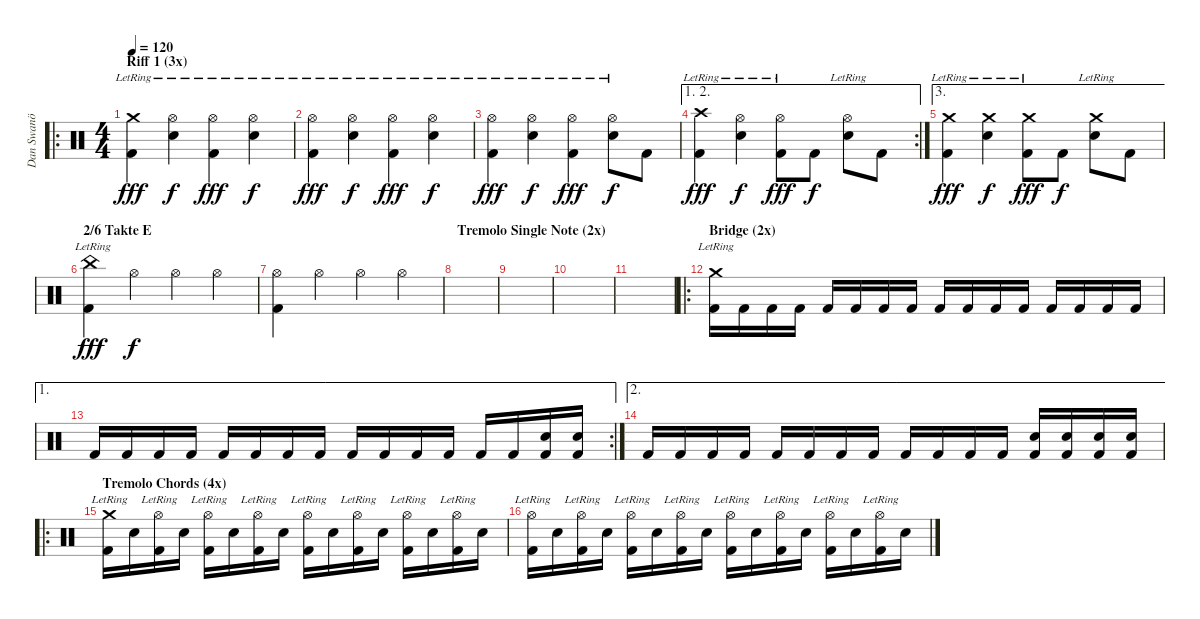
\track ("Dan Swanö" "Dan Swanö") {instrument percussion}
\staff {score}
\articulation defaults
\ro
\ts (4 4)
\section ("" "Riff 1 (3x)")
\tempo 120
\clef neutral
\ks c
("Crash medium (hit)"{lr} "Kick (hit) 2").4{dy fff} ("Hi-Hat (open)"{lr} "Electric Snare (hit)").4{dy f} ("Hi-Hat (open)"{lr} "Kick (hit) 2").4{dy fff} ("Hi-Hat (open)"{lr} "Electric Snare (hit)").4{dy f} |
("Hi-Hat (open)"{lr} "Kick (hit) 2").4{dy fff} ("Hi-Hat (open)"{lr} "Electric Snare (hit)").4{dy f} ("Hi-Hat (open)"{lr} "Kick (hit) 2").4{dy fff} ("Hi-Hat (open)"{lr} "Electric Snare (hit)").4{dy f} |
("Hi-Hat (open)"{lr} "Kick (hit) 2").4{dy fff} ("Hi-Hat (open)"{lr} "Electric Snare (hit)").4{dy f} ("Hi-Hat (open)"{lr} "Kick (hit) 2").4{dy fff} ("Hi-Hat (open)"{lr} "Electric Snare (hit)").8{dy f} "Kick (hit) 2".8 |
\ae (1 2)
\rc 2
("Crash high (hit)"{lr} "Kick (hit) 2").4{dy fff} ("Hi-Hat (open)"{lr} "Electric Snare (hit)").4{dy f} ("Hi-Hat (open)"{lr} "Kick (hit) 2").8{dy fff} "Kick (hit) 2".8{dy f} ("Hi-Hat (open)"{lr} "Electric Snare (hit)").8 "Kick (hit) 2".8 |
\ae 3
("Crash medium (hit)"{lr} "Kick (hit) 2").4{dy fff} ("Crash medium (hit)"{lr} "Electric Snare (hit)").4{dy f} ("Crash medium (hit)"{lr} "Kick (hit) 2").8{dy fff} "Kick (hit) 2".8{dy f} ("Crash medium (hit)"{lr} "Electric Snare (hit)").8 "Kick (hit) 2".8 |
\section ("" "2/6 Takte E")
("China (hit)"{lr} "Kick (hit) 2").4{dy fff} "Hi-Hat (open)".4{dy f} "Hi-Hat (open)".4 "Hi-Hat (open)".4 |
("Hi-Hat (open)" "Kick (hit) 2").4 "Hi-Hat (open)".4 "Hi-Hat (open)".4 "Hi-Hat (open)".4 |
\section ("" "Tremolo Single Note (2x)")
|
|
|
|
\ro
\section ("" "Bridge (2x)")
("Crash medium (hit)"{lr} "Kick (hit) 2").16 "Kick (hit) 2".16 "Kick (hit) 2".16 "Kick (hit) 2".16 "Kick (hit) 2".16 "Kick (hit) 2".16 "Kick (hit) 2".16 "Kick (hit) 2".16 "Kick (hit) 2".16 "Kick (hit) 2".16 "Kick (hit) 2".16 "Kick (hit) 2".16 "Kick (hit) 2".16 "Kick (hit) 2".16 "Kick (hit) 2".16 "Kick (hit) 2".16 |
\ae 1
\rc 2 "Kick (hit) 2".16 "Kick (hit) 2".16 "Kick (hit) 2".16 "Kick (hit) 2".16 "Kick (hit) 2".16 "Kick (hit) 2".16 "Kick (hit) 2".16 "Kick (hit) 2".16 "Kick (hit) 2".16 "Kick (hit) 2".16 "Kick (hit) 2".16 "Kick (hit) 2".16 "Kick (hit) 2".16 "Kick (hit) 2".16
("Electric Snare (hit)" "Kick (hit) 2").16 ("Electric Snare (hit)" "Kick (hit) 2").16 |
\ae 2 "Kick (hit) 2".16 "Kick (hit) 2".16 "Kick (hit) 2".16 "Kick (hit) 2".16 "Kick (hit) 2".16 "Kick (hit) 2".16 "Kick (hit) 2".16 "Kick (hit) 2".16 "Kick (hit) 2".16 "Kick (hit) 2".16 "Kick (hit) 2".16 "Kick (hit) 2".16
("Electric Snare (hit)" "Kick (hit) 2").16 ("Electric Snare (hit)" "Kick (hit) 2").16 ("Electric Snare (hit)" "Kick (hit) 2").16 ("Electric Snare (hit)" "Kick (hit) 2").16 |
\ro
\section ("" "Tremolo Chords (4x)")
("Crash medium (hit)"{lr} "Kick (hit) 2").16 "Electric Snare (hit)".16 ("Hi-Hat (open)"{lr} "Kick (hit) 2").16 "Electric Snare (hit)".16 ("Hi-Hat (open)"{lr} "Kick (hit) 2").16 "Electric Snare (hit)".16 ("Hi-Hat (open)"{lr} "Kick (hit) 2").16 "Electric Snare (hit)".16 ("Hi-Hat (open)"{lr} "Kick (hit) 2").16 "Electric Snare (hit)".16 ("Hi-Hat (open)"{lr} "Kick (hit) 2").16 "Electric Snare (hit)".16 ("Hi-Hat (open)"{lr} "Kick (hit) 2").16 "Electric Snare (hit)".16 ("Hi-Hat (open)"{lr} "Kick (hit) 2").16 "Electric Snare (hit)".16 |
("Hi-Hat (open)"{lr} "Kick (hit) 2").16 "Electric Snare (hit)".16 ("Hi-Hat (open)"{lr} "Kick (hit) 2").16 "Electric Snare (hit)".16 ("Hi-Hat (open)"{lr} "Kick (hit) 2").16 "Electric Snare (hit)".16 ("Hi-Hat (open)"{lr} "Kick (hit) 2").16 "Electric Snare (hit)".16 ("Hi-Hat (open)"{lr} "Kick (hit) 2").16 "Electric Snare (hit)".16 ("Hi-Hat (open)"{lr} "Kick (hit) 2").16 "Electric Snare (hit)".16 ("Hi-Hat (open)"{lr} "Kick (hit) 2").16 "Electric Snare (hit)".16 ("Hi-Hat (open)"{lr} "Kick (hit) 2").16 "Electric Snare (hit)".16
